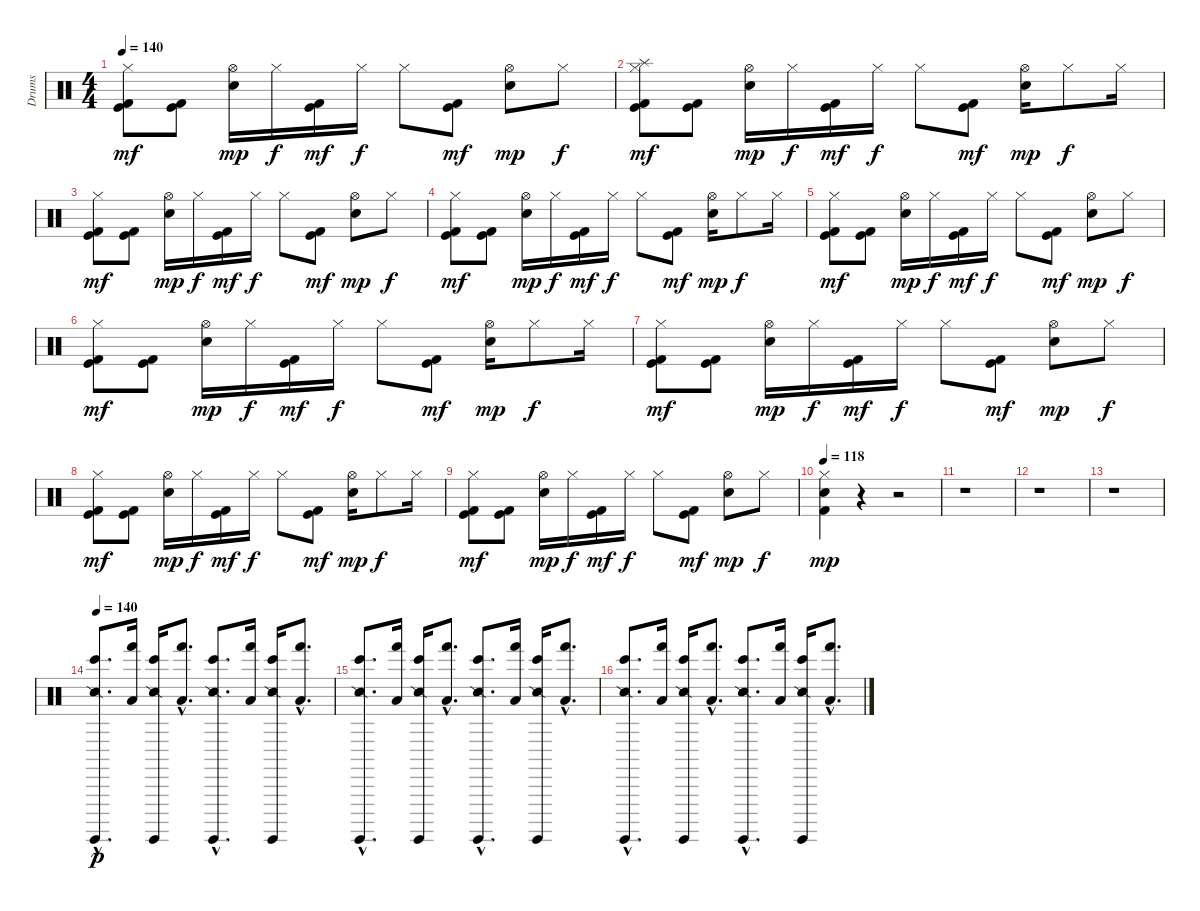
\track ("Drums" "Drums") {instrument percussion}
\staff {score}
\articulation defaults
\ts (4 4)
\tempo 140
\clef neutral
\ks c
("Hi-Hat (closed)" "Kick (hit) 2" "Kick (hit)").8{dy mf} ("Kick (hit) 2" "Kick (hit)").8 ("Hi-Hat (open)" "Snare (hit) 2").16{dy mp} "Hi-Hat (closed)".16{dy f} ("Kick (hit) 2" "Kick (hit)").16{dy mf} "Hi-Hat (closed)".16{dy f} "Hi-Hat (closed)".8 ("Kick (hit) 2" "Kick (hit)").8{dy mf} ("Hi-Hat (open)" "Snare (hit) 2").8{dy mp} "Hi-Hat (closed)".8{dy f} |
("Splash (hit)" "Hi-Hat (closed)" "Kick (hit) 2" "Kick (hit)").8{dy mf} ("Kick (hit) 2" "Kick (hit)").8 ("Hi-Hat (open)" "Snare (hit) 2").16{dy mp} "Hi-Hat (closed)".16{dy f} ("Kick (hit) 2" "Kick (hit)").16{dy mf} "Hi-Hat (closed)".16{dy f} "Hi-Hat (closed)".8 ("Kick (hit) 2" "Kick (hit)").8{dy mf} ("Hi-Hat (open)" "Snare (hit) 2").16{dy mp} "Hi-Hat (closed)".8{dy f} "Hi-Hat (closed)".16 |
("Hi-Hat (closed)" "Kick (hit) 2" "Kick (hit)").8{dy mf} ("Kick (hit) 2" "Kick (hit)").8 ("Hi-Hat (open)" "Snare (hit) 2").16{dy mp} "Hi-Hat (closed)".16{dy f} ("Kick (hit) 2" "Kick (hit)").16{dy mf} "Hi-Hat (closed)".16{dy f} "Hi-Hat (closed)".8 ("Kick (hit) 2" "Kick (hit)").8{dy mf} ("Hi-Hat (open)" "Snare (hit) 2").8{dy mp} "Hi-Hat (closed)".8{dy f} |
("Hi-Hat (closed)" "Kick (hit) 2" "Kick (hit)").8{dy mf} ("Kick (hit) 2" "Kick (hit)").8 ("Hi-Hat (open)" "Snare (hit) 2").16{dy mp} "Hi-Hat (closed)".16{dy f} ("Kick (hit) 2" "Kick (hit)").16{dy mf} "Hi-Hat (closed)".16{dy f} "Hi-Hat (closed)".8 ("Kick (hit) 2" "Kick (hit)").8{dy mf} ("Hi-Hat (open)" "Snare (hit) 2").16{dy mp} "Hi-Hat (closed)".8{dy f} "Hi-Hat (closed)".16 |
("Hi-Hat (closed)" "Kick (hit) 2" "Kick (hit)").8{dy mf} ("Kick (hit) 2" "Kick (hit)").8 ("Hi-Hat (open)" "Snare (hit) 2").16{dy mp} "Hi-Hat (closed)".16{dy f} ("Kick (hit) 2" "Kick (hit)").16{dy mf} "Hi-Hat (closed)".16{dy f} "Hi-Hat (closed)".8 ("Kick (hit) 2" "Kick (hit)").8{dy mf} ("Hi-Hat (open)" "Snare (hit) 2").8{dy mp} "Hi-Hat (closed)".8{dy f} |
("Hi-Hat (closed)" "Kick (hit) 2" "Kick (hit)").8{dy mf} ("Kick (hit) 2" "Kick (hit)").8 ("Hi-Hat (open)" "Snare (hit) 2").16{dy mp} "Hi-Hat (closed)".16{dy f} ("Kick (hit) 2" "Kick (hit)").16{dy mf} "Hi-Hat (closed)".16{dy f} "Hi-Hat (closed)".8 ("Kick (hit) 2" "Kick (hit)").8{dy mf} ("Hi-Hat (open)" "Snare (hit) 2").16{dy mp} "Hi-Hat (closed)".8{dy f} "Hi-Hat (closed)".16 |
("Hi-Hat (closed)" "Kick (hit) 2" "Kick (hit)").8{dy mf} ("Kick (hit) 2" "Kick (hit)").8 ("Hi-Hat (open)" "Snare (hit) 2").16{dy mp} "Hi-Hat (closed)".16{dy f} ("Kick (hit) 2" "Kick (hit)").16{dy mf} "Hi-Hat (closed)".16{dy f} "Hi-Hat (closed)".8 ("Kick (hit) 2" "Kick (hit)").8{dy mf} ("Hi-Hat (open)" "Snare (hit) 2").8{dy mp} "Hi-Hat (closed)".8{dy f} |
("Hi-Hat (closed)" "Kick (hit) 2" "Kick (hit)").8{dy mf} ("Kick (hit) 2" "Kick (hit)").8 ("Hi-Hat (open)" "Snare (hit) 2").16{dy mp} "Hi-Hat (closed)".16{dy f} ("Kick (hit) 2" "Kick (hit)").16{dy mf} "Hi-Hat (closed)".16{dy f} "Hi-Hat (closed)".8 ("Kick (hit) 2" "Kick (hit)").8{dy mf} ("Hi-Hat (open)" "Snare (hit) 2").16{dy mp} "Hi-Hat (closed)".8{dy f} "Hi-Hat (closed)".16 |
("Hi-Hat (closed)" "Kick (hit) 2" "Kick (hit)").8{dy mf} ("Kick (hit) 2" "Kick (hit)").8 ("Hi-Hat (open)" "Snare (hit) 2").16{dy mp} "Hi-Hat (closed)".16{dy f} ("Kick (hit) 2" "Kick (hit)").16{dy mf} "Hi-Hat (closed)".16{dy f} "Hi-Hat (closed)".8 ("Kick (hit) 2" "Kick (hit)").8{dy mf} ("Hi-Hat (open)" "Snare (hit) 2").8{dy mp} "Hi-Hat (closed)".8{dy f} |
\tempo 118
("Hi-Hat (closed)" "Snare (hit) 2" "Kick (hit) 2").4{dy mp} r.4 r.2 |
r.1 |
r.1 |
r.1 |
\tempo 140
("Surdo (hit)"{hac} "Snare (side stick) 2"{hac} "Bongo High (hit)"{hac}).8{d dy p} ("Hand (hit)" "Low Floor Tom (hit)").16 ("Surdo (hit)" "Snare (side stick) 2" "Bongo High (hit)").16 ("Hand (hit)"{hac} "Low Floor Tom (hit)"{hac}).8{d} ("Surdo (hit)"{hac} "Snare (side stick) 2"{hac} "Bongo High (hit)"{hac}).8{d} ("Hand (hit)" "Low Floor Tom (hit)").16 ("Surdo (hit)" "Snare (side stick) 2" "Bongo High (hit)").16 ("Hand (hit)"{hac} "Low Floor Tom (hit)"{hac}).8{d} |
("Surdo (hit)"{hac} "Snare (side stick) 2"{hac} "Bongo High (hit)"{hac}).8{d} ("Hand (hit)" "Low Floor Tom (hit)").16 ("Surdo (hit)" "Snare (side stick) 2" "Bongo High (hit)").16 ("Hand (hit)"{hac} "Low Floor Tom (hit)"{hac}).8{d} ("Surdo (hit)"{hac} "Snare (side stick) 2"{hac} "Bongo High (hit)"{hac}).8{d} ("Hand (hit)" "Low Floor Tom (hit)").16 ("Surdo (hit)" "Snare (side stick) 2" "Bongo High (hit)").16 ("Hand (hit)"{hac} "Low Floor Tom (hit)"{hac}).8{d} |
("Surdo (hit)"{hac} "Snare (side stick) 2"{hac} "Bongo High (hit)"{hac}).8{d} ("Hand (hit)" "Low Floor Tom (hit)").16 ("Surdo (hit)" "Snare (side stick) 2" "Bongo High (hit)").16 ("Hand (hit)"{hac} "Low Floor Tom (hit)"{hac}).8{d} ("Surdo (hit)"{hac} "Snare (side stick) 2"{hac} "Bongo High (hit)"{hac}).8{d} ("Hand (hit)" "Low Floor Tom (hit)").16 ("Surdo (hit)" "Snare (side stick) 2" "Bongo High (hit)").16 ("Hand (hit)"{hac} "Low Floor Tom (hit)"{hac}).8{d}
